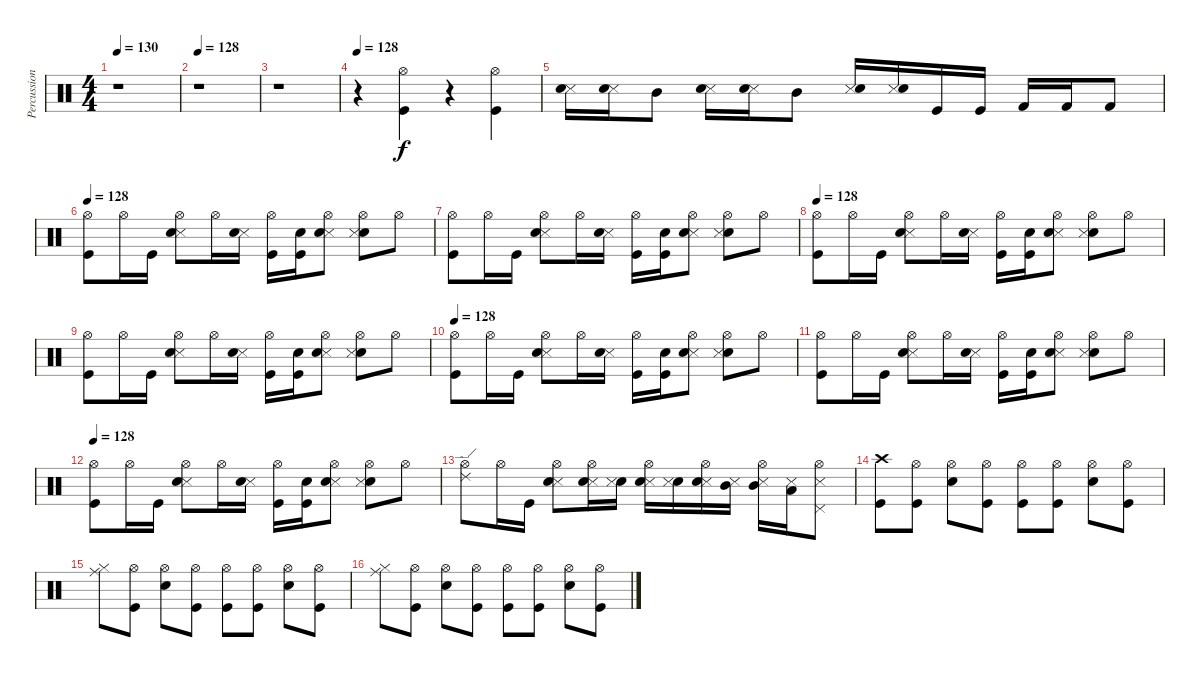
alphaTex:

\track ("Percussion" "Percussion") {instrument percussion}
\staff {score}
\articulation defaults
\ts (4 4)
\tempo 130
\clef neutral
\ks c
r.1{dy f} |
\tempo 128
r.1 |
r.1 |
\tempo 128
r.4 ("Kick (hit)" "Hi-Hat (open)").4 r.4 ("Kick (hit)" "Hi-Hat (open)").4 |
("Snare (side stick) 3" "Electric Snare (hit)").16 ("Snare (side stick) 3" "Electric Snare (hit)").16 "Mid Tom (hit)".8 ("Snare (side stick) 3" "Electric Snare (hit)").16 ("Snare (side stick) 3" "Electric Snare (hit)").16 "Mid Tom (hit)".8 ("Snare (side stick) 3" "Electric Snare (hit)").16 ("Snare (side stick) 3" "Electric Snare (hit)").16 "Kick (hit)".16 "Kick (hit)".16 "Kick (hit) 2".16 "Kick (hit) 2".16 "Kick (hit) 2".8 |
\tempo 128
("Hi-Hat (open)" "Kick (hit)").8 "Hi-Hat (open)".16 "Kick (hit)".16 ("Snare (side stick) 3" "Electric Snare (hit)" "Hi-Hat (open)").8 "Hi-Hat (open)".16 ("Snare (side stick) 3" "Electric Snare (hit)").16 ("Kick (hit)" "Hi-Hat (open)").16 ("Kick (hit)" "Electric Snare (hit)").16 ("Snare (side stick) 3" "Electric Snare (hit)" "Hi-Hat (open)").8 ("Electric Snare (hit)" "Snare (side stick) 3" "Hi-Hat (open)").8 "Hi-Hat (open)".8 |
("Hi-Hat (open)" "Kick (hit)").8 "Hi-Hat (open)".16 "Kick (hit)".16 ("Snare (side stick) 3" "Electric Snare (hit)" "Hi-Hat (open)").8 "Hi-Hat (open)".16 ("Snare (side stick) 3" "Electric Snare (hit)").16 ("Kick (hit)" "Hi-Hat (open)").16 ("Kick (hit)" "Electric Snare (hit)").16 ("Snare (side stick) 3" "Electric Snare (hit)" "Hi-Hat (open)").8 ("Electric Snare (hit)" "Snare (side stick) 3" "Hi-Hat (open)").8 "Hi-Hat (open)".8 |
\tempo 128
("Hi-Hat (open)" "Kick (hit)").8 "Hi-Hat (open)".16 "Kick (hit)".16 ("Snare (side stick) 3" "Electric Snare (hit)" "Hi-Hat (open)").8 "Hi-Hat (open)".16 ("Snare (side stick) 3" "Electric Snare (hit)").16 ("Kick (hit)" "Hi-Hat (open)").16 ("Kick (hit)" "Electric Snare (hit)").16 ("Snare (side stick) 3" "Electric Snare (hit)" "Hi-Hat (open)").8 ("Electric Snare (hit)" "Snare (side stick) 3" "Hi-Hat (open)").8 "Hi-Hat (open)".8 |
("Hi-Hat (open)" "Kick (hit)").8 "Hi-Hat (open)".16 "Kick (hit)".16 ("Snare (side stick) 3" "Electric Snare (hit)" "Hi-Hat (open)").8 "Hi-Hat (open)".16 ("Snare (side stick) 3" "Electric Snare (hit)").16 ("Kick (hit)" "Hi-Hat (open)").16 ("Kick (hit)" "Electric Snare (hit)").16 ("Snare (side stick) 3" "Electric Snare (hit)" "Hi-Hat (open)").8 ("Electric Snare (hit)" "Snare (side stick) 3" "Hi-Hat (open)").8 "Hi-Hat (open)".8 |
\tempo 128
("Hi-Hat (open)" "Kick (hit)").8 "Hi-Hat (open)".16 "Kick (hit)".16 ("Snare (side stick) 3" "Electric Snare (hit)" "Hi-Hat (open)").8 "Hi-Hat (open)".16 ("Snare (side stick) 3" "Electric Snare (hit)").16 ("Kick (hit)" "Hi-Hat (open)").16 ("Kick (hit)" "Electric Snare (hit)").16 ("Snare (side stick) 3" "Electric Snare (hit)" "Hi-Hat (open)").8 ("Electric Snare (hit)" "Snare (side stick) 3" "Hi-Hat (open)").8 "Hi-Hat (open)".8 |
("Hi-Hat (open)" "Kick (hit)").8 "Hi-Hat (open)".16 "Kick (hit)".16 ("Snare (side stick) 3" "Electric Snare (hit)" "Hi-Hat (open)").8 "Hi-Hat (open)".16 ("Snare (side stick) 3" "Electric Snare (hit)").16 ("Kick (hit)" "Hi-Hat (open)").16 ("Kick (hit)" "Electric Snare (hit)").16 ("Snare (side stick) 3" "Electric Snare (hit)" "Hi-Hat (open)").8 ("Electric Snare (hit)" "Snare (side stick) 3" "Hi-Hat (open)").8 "Hi-Hat (open)".8 |
\tempo 128
("Hi-Hat (open)" "Kick (hit)").8 "Hi-Hat (open)".16 "Kick (hit)".16 ("Snare (side stick) 3" "Electric Snare (hit)" "Hi-Hat (open)").8 "Hi-Hat (open)".16 ("Snare (side stick) 3" "Electric Snare (hit)").16 ("Kick (hit)" "Hi-Hat (open)").16 ("Kick (hit)" "Electric Snare (hit)").16 ("Snare (side stick) 3" "Electric Snare (hit)" "Hi-Hat (open)").8 ("Electric Snare (hit)" "Snare (side stick) 3" "Hi-Hat (open)").8 "Hi-Hat (open)".8 |
("Ride (edge) 2" "Hi-Hat (open)").8 "Hi-Hat (open)".16 "Kick (hit)".16 ("Snare (side stick) 3" "Electric Snare (hit)" "Hi-Hat (open)").8 ("Snare (side stick) 3" "Electric Snare (hit)" "Hi-Hat (open)").16 ("Electric Snare (hit)" "Snare (side stick) 3").16 ("Snare (side stick) 3" "Electric Snare (hit)" "Hi-Hat (open)").16 ("Electric Snare (hit)" "Snare (side stick) 3").16 ("Snare (side stick) 3" "Electric Snare (hit)" "Hi-Hat (open)").16 ("Mid Tom (hit)" "Snare (side stick) 3").16 ("Mid Tom (hit)" "Snare (side stick) 3" "Hi-Hat (open)").16 ("Low Tom (hit)" "Snare (side stick) 3").16 ("Pedal Hi-Hat (hit)" "Snare (side stick) 3" "Hi-Hat (open)").8 |
("Crash high (hit)" "Kick (hit)").8 ("Kick (hit)" "Hi-Hat (open)").8 ("Electric Snare (hit)" "Hi-Hat (open)").8 ("Kick (hit)" "Hi-Hat (open)").8 ("Kick (hit)" "Hi-Hat (open)").8 ("Kick (hit)" "Hi-Hat (open)").8 ("Electric Snare (hit)" "Hi-Hat (open)").8 ("Kick (hit)" "Hi-Hat (open)").8 |
("Hi-Hat (closed)" "Ride (middle)").8 ("Kick (hit)" "Hi-Hat (open)").8 ("Electric Snare (hit)" "Hi-Hat (open)").8 ("Kick (hit)" "Hi-Hat (open)").8 ("Kick (hit)" "Hi-Hat (open)").8 ("Kick (hit)" "Hi-Hat (open)").8 ("Electric Snare (hit)" "Hi-Hat (open)").8 ("Kick (hit)" "Hi-Hat (open)").8 |
("Hi-Hat (closed)" "Ride (middle)").8 ("Kick (hit)" "Hi-Hat (open)").8 ("Electric Snare (hit)" "Hi-Hat (open)").8 ("Kick (hit)" "Hi-Hat (open)").8 ("Kick (hit)" "Hi-Hat (open)").8 ("Kick (hit)" "Hi-Hat (open)").8 ("Electric Snare (hit)" "Hi-Hat (open)").8 ("Kick (hit)" "Hi-Hat (open)").8
